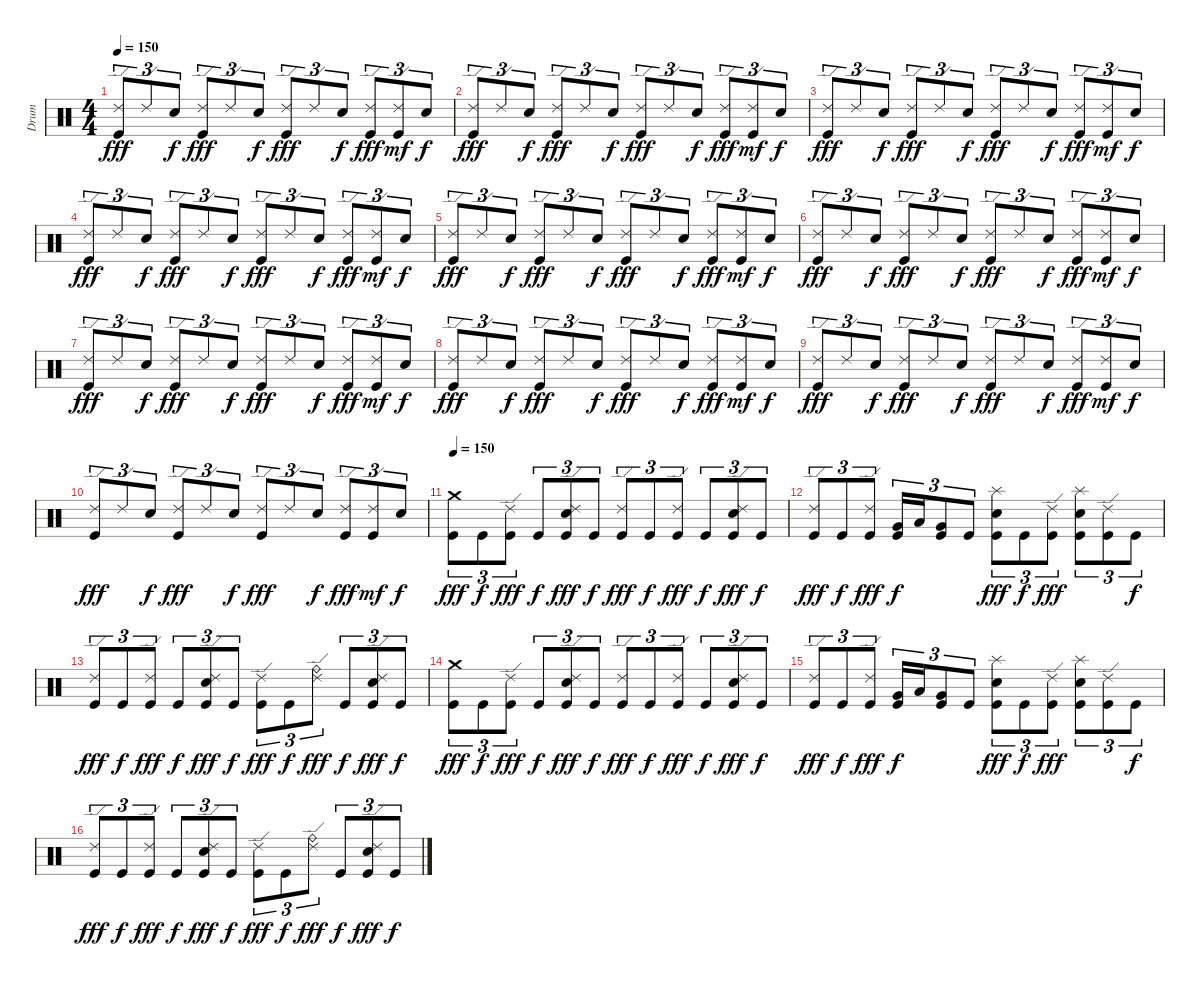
\track ("Drum" "Drum") {instrument percussion}
\staff {score}
\articulation defaults
\ts (4 4)
\tempo 150
\clef neutral
\ks c
("Ride (edge) 2" "Kick (hit)").8{tu (3 2) dy fff} "Ride (edge) 2".8{tu (3 2)} "Snare (hit) 2".8{tu (3 2) dy f} ("Ride (edge) 2" "Kick (hit)").8{tu (3 2) dy fff} "Ride (edge) 2".8{tu (3 2)} "Snare (hit) 2".8{tu (3 2) dy f} ("Ride (edge) 2" "Kick (hit)").8{tu (3 2) dy fff} "Ride (edge) 2".8{tu (3 2)} "Snare (hit) 2".8{tu (3 2) dy f} ("Ride (edge) 2" "Kick (hit)").8{tu (3 2) dy fff} ("Ride (edge) 2" "Kick (hit)").8{tu (3 2) dy mf} "Snare (hit) 2".8{tu (3 2) dy f} |
("Ride (edge) 2" "Kick (hit)").8{tu (3 2) dy fff} "Ride (edge) 2".8{tu (3 2)} "Snare (hit) 2".8{tu (3 2) dy f} ("Ride (edge) 2" "Kick (hit)").8{tu (3 2) dy fff} "Ride (edge) 2".8{tu (3 2)} "Snare (hit) 2".8{tu (3 2) dy f} ("Ride (edge) 2" "Kick (hit)").8{tu (3 2) dy fff} "Ride (edge) 2".8{tu (3 2)} "Snare (hit) 2".8{tu (3 2) dy f} ("Ride (edge) 2" "Kick (hit)").8{tu (3 2) dy fff} ("Ride (edge) 2" "Kick (hit)").8{tu (3 2) dy mf} "Snare (hit) 2".8{tu (3 2) dy f} |
("Ride (edge) 2" "Kick (hit)").8{tu (3 2) dy fff} "Ride (edge) 2".8{tu (3 2)} "Snare (hit) 2".8{tu (3 2) dy f} ("Ride (edge) 2" "Kick (hit)").8{tu (3 2) dy fff} "Ride (edge) 2".8{tu (3 2)} "Snare (hit) 2".8{tu (3 2) dy f} ("Ride (edge) 2" "Kick (hit)").8{tu (3 2) dy fff} "Ride (edge) 2".8{tu (3 2)} "Snare (hit) 2".8{tu (3 2) dy f} ("Ride (edge) 2" "Kick (hit)").8{tu (3 2) dy fff} ("Ride (edge) 2" "Kick (hit)").8{tu (3 2) dy mf} "Snare (hit) 2".8{tu (3 2) dy f} |
("Ride (edge) 2" "Kick (hit)").8{tu (3 2) dy fff} "Ride (edge) 2".8{tu (3 2)} "Snare (hit) 2".8{tu (3 2) dy f} ("Ride (edge) 2" "Kick (hit)").8{tu (3 2) dy fff} "Ride (edge) 2".8{tu (3 2)} "Snare (hit) 2".8{tu (3 2) dy f} ("Ride (edge) 2" "Kick (hit)").8{tu (3 2) dy fff} "Ride (edge) 2".8{tu (3 2)} "Snare (hit) 2".8{tu (3 2) dy f} ("Ride (edge) 2" "Kick (hit)").8{tu (3 2) dy fff} ("Ride (edge) 2" "Kick (hit)").8{tu (3 2) dy mf} "Snare (hit) 2".8{tu (3 2) dy f} |
("Ride (edge) 2" "Kick (hit)").8{tu (3 2) dy fff} "Ride (edge) 2".8{tu (3 2)} "Snare (hit) 2".8{tu (3 2) dy f} ("Ride (edge) 2" "Kick (hit)").8{tu (3 2) dy fff} "Ride (edge) 2".8{tu (3 2)} "Snare (hit) 2".8{tu (3 2) dy f} ("Ride (edge) 2" "Kick (hit)").8{tu (3 2) dy fff} "Ride (edge) 2".8{tu (3 2)} "Snare (hit) 2".8{tu (3 2) dy f} ("Ride (edge) 2" "Kick (hit)").8{tu (3 2) dy fff} ("Ride (edge) 2" "Kick (hit)").8{tu (3 2) dy mf} "Snare (hit) 2".8{tu (3 2) dy f} |
("Ride (edge) 2" "Kick (hit)").8{tu (3 2) dy fff} "Ride (edge) 2".8{tu (3 2)} "Snare (hit) 2".8{tu (3 2) dy f} ("Ride (edge) 2" "Kick (hit)").8{tu (3 2) dy fff} "Ride (edge) 2".8{tu (3 2)} "Snare (hit) 2".8{tu (3 2) dy f} ("Ride (edge) 2" "Kick (hit)").8{tu (3 2) dy fff} "Ride (edge) 2".8{tu (3 2)} "Snare (hit) 2".8{tu (3 2) dy f} ("Ride (edge) 2" "Kick (hit)").8{tu (3 2) dy fff} ("Ride (edge) 2" "Kick (hit)").8{tu (3 2) dy mf} "Snare (hit) 2".8{tu (3 2) dy f} |
("Ride (edge) 2" "Kick (hit)").8{tu (3 2) dy fff} "Ride (edge) 2".8{tu (3 2)} "Snare (hit) 2".8{tu (3 2) dy f} ("Ride (edge) 2" "Kick (hit)").8{tu (3 2) dy fff} "Ride (edge) 2".8{tu (3 2)} "Snare (hit) 2".8{tu (3 2) dy f} ("Ride (edge) 2" "Kick (hit)").8{tu (3 2) dy fff} "Ride (edge) 2".8{tu (3 2)} "Snare (hit) 2".8{tu (3 2) dy f} ("Ride (edge) 2" "Kick (hit)").8{tu (3 2) dy fff} ("Ride (edge) 2" "Kick (hit)").8{tu (3 2) dy mf} "Snare (hit) 2".8{tu (3 2) dy f} |
("Ride (edge) 2" "Kick (hit)").8{tu (3 2) dy fff} "Ride (edge) 2".8{tu (3 2)} "Snare (hit) 2".8{tu (3 2) dy f} ("Ride (edge) 2" "Kick (hit)").8{tu (3 2) dy fff} "Ride (edge) 2".8{tu (3 2)} "Snare (hit) 2".8{tu (3 2) dy f} ("Ride (edge) 2" "Kick (hit)").8{tu (3 2) dy fff} "Ride (edge) 2".8{tu (3 2)} "Snare (hit) 2".8{tu (3 2) dy f} ("Ride (edge) 2" "Kick (hit)").8{tu (3 2) dy fff} ("Ride (edge) 2" "Kick (hit)").8{tu (3 2) dy mf} "Snare (hit) 2".8{tu (3 2) dy f} |
("Ride (edge) 2" "Kick (hit)").8{tu (3 2) dy fff} "Ride (edge) 2".8{tu (3 2)} "Snare (hit) 2".8{tu (3 2) dy f} ("Ride (edge) 2" "Kick (hit)").8{tu (3 2) dy fff} "Ride (edge) 2".8{tu (3 2)} "Snare (hit) 2".8{tu (3 2) dy f} ("Ride (edge) 2" "Kick (hit)").8{tu (3 2) dy fff} "Ride (edge) 2".8{tu (3 2)} "Snare (hit) 2".8{tu (3 2) dy f} ("Ride (edge) 2" "Kick (hit)").8{tu (3 2) dy fff} ("Ride (edge) 2" "Kick (hit)").8{tu (3 2) dy mf} "Snare (hit) 2".8{tu (3 2) dy f} |
("Ride (edge) 2" "Kick (hit)").8{tu (3 2) dy fff} "Ride (edge) 2".8{tu (3 2)} "Snare (hit) 2".8{tu (3 2) dy f} ("Ride (edge) 2" "Kick (hit)").8{tu (3 2) dy fff} "Ride (edge) 2".8{tu (3 2)} "Snare (hit) 2".8{tu (3 2) dy f} ("Ride (edge) 2" "Kick (hit)").8{tu (3 2) dy fff} "Ride (edge) 2".8{tu (3 2)} "Snare (hit) 2".8{tu (3 2) dy f} ("Ride (edge) 2" "Kick (hit)").8{tu (3 2) dy fff} ("Ride (edge) 2" "Kick (hit)").8{tu (3 2) dy mf} "Snare (hit) 2".8{tu (3 2) dy f} |
\tempo 150
("Crash medium (hit)" "Kick (hit)").8{tu (3 2) dy fff} "Kick (hit)".8{tu (3 2) dy f} ("Ride (edge) 2" "Kick (hit)").8{tu (3 2) dy fff} "Kick (hit)".8{tu (3 2) dy f} ("Ride (edge) 2" "Snare (hit) 2" "Kick (hit)").8{tu (3 2) dy fff} "Kick (hit)".8{tu (3 2) dy f} ("Ride (edge) 2" "Kick (hit)").8{tu (3 2) dy fff} "Kick (hit)".8{tu (3 2) dy f} ("Ride (edge) 2" "Kick (hit)").8{tu (3 2) dy fff} "Kick (hit)".8{tu (3 2) dy f} ("Ride (edge) 2" "Snare (hit) 2" "Kick (hit)").8{tu (3 2) dy fff} "Kick (hit)".8{tu (3 2) dy f} |
("Ride (edge) 2" "Kick (hit)").8{tu (3 2) dy fff} "Kick (hit)".8{tu (3 2) dy f} ("Ride (edge) 2" "Kick (hit)").8{tu (3 2) dy fff} ("Very Low Tom (hit)" "Kick (hit)").16{tu (3 2) dy f} "Low Floor Tom (hit)".16{tu (3 2)} ("Very Low Tom (hit)" "Kick (hit)").8{tu (3 2)} "Kick (hit)".8{tu (3 2)} ("Splash (hit)" "Snare (hit) 2" "Kick (hit)").8{tu (3 2) dy fff} "Kick (hit)".8{tu (3 2) dy f} ("Ride (edge) 2" "Kick (hit)").8{tu (3 2) dy fff} ("Splash (hit)" "Snare (hit) 2" "Kick (hit)").8{tu (3 2)} ("Ride (edge) 2" "Kick (hit)").8{tu (3 2)} "Kick (hit)".8{tu (3 2) dy f} |
("Ride (edge) 2" "Kick (hit)").8{tu (3 2) dy fff} "Kick (hit)".8{tu (3 2) dy f} ("Ride (edge) 2" "Kick (hit)").8{tu (3 2) dy fff} "Kick (hit)".8{tu (3 2) dy f} ("Ride (edge) 2" "Snare (hit) 2" "Kick (hit)").8{tu (3 2) dy fff} "Kick (hit)".8{tu (3 2) dy f} ("Ride (edge) 2" "Kick (hit)").8{tu (3 2) dy fff} "Kick (hit)".8{tu (3 2) dy f} ("Ride (edge) 2" "Ride (bell)").8{tu (3 2) dy fff} "Kick (hit)".8{tu (3 2) dy f} ("Ride (edge) 2" "Snare (hit) 2" "Kick (hit)").8{tu (3 2) dy fff} "Kick (hit)".8{tu (3 2) dy f} |
("Crash medium (hit)" "Kick (hit)").8{tu (3 2) dy fff} "Kick (hit)".8{tu (3 2) dy f} ("Ride (edge) 2" "Kick (hit)").8{tu (3 2) dy fff} "Kick (hit)".8{tu (3 2) dy f} ("Ride (edge) 2" "Snare (hit) 2" "Kick (hit)").8{tu (3 2) dy fff} "Kick (hit)".8{tu (3 2) dy f} ("Ride (edge) 2" "Kick (hit)").8{tu (3 2) dy fff} "Kick (hit)".8{tu (3 2) dy f} ("Ride (edge) 2" "Kick (hit)").8{tu (3 2) dy fff} "Kick (hit)".8{tu (3 2) dy f} ("Ride (edge) 2" "Snare (hit) 2" "Kick (hit)").8{tu (3 2) dy fff} "Kick (hit)".8{tu (3 2) dy f} |
("Ride (edge) 2" "Kick (hit)").8{tu (3 2) dy fff} "Kick (hit)".8{tu (3 2) dy f} ("Ride (edge) 2" "Kick (hit)").8{tu (3 2) dy fff} ("Very Low Tom (hit)" "Kick (hit)").16{tu (3 2) dy f} "Low Floor Tom (hit)".16{tu (3 2)} ("Very Low Tom (hit)" "Kick (hit)").8{tu (3 2)} "Kick (hit)".8{tu (3 2)} ("Splash (hit)" "Snare (hit) 2" "Kick (hit)").8{tu (3 2) dy fff} "Kick (hit)".8{tu (3 2) dy f} ("Ride (edge) 2" "Kick (hit)").8{tu (3 2) dy fff} ("Splash (hit)" "Snare (hit) 2" "Kick (hit)").8{tu (3 2)} ("Ride (edge) 2" "Kick (hit)").8{tu (3 2)} "Kick (hit)".8{tu (3 2) dy f} |
("Ride (edge) 2" "Kick (hit)").8{tu (3 2) dy fff} "Kick (hit)".8{tu (3 2) dy f} ("Ride (edge) 2" "Kick (hit)").8{tu (3 2) dy fff} "Kick (hit)".8{tu (3 2) dy f} ("Ride (edge) 2" "Snare (hit) 2" "Kick (hit)").8{tu (3 2) dy fff} "Kick (hit)".8{tu (3 2) dy f} ("Ride (edge) 2" "Kick (hit)").8{tu (3 2) dy fff} "Kick (hit)".8{tu (3 2) dy f} ("Ride (edge) 2" "Ride (bell)").8{tu (3 2) dy fff} "Kick (hit)".8{tu (3 2) dy f} ("Ride (edge) 2" "Snare (hit) 2" "Kick (hit)").8{tu (3 2) dy fff} "Kick (hit)".8{tu (3 2) dy f}
